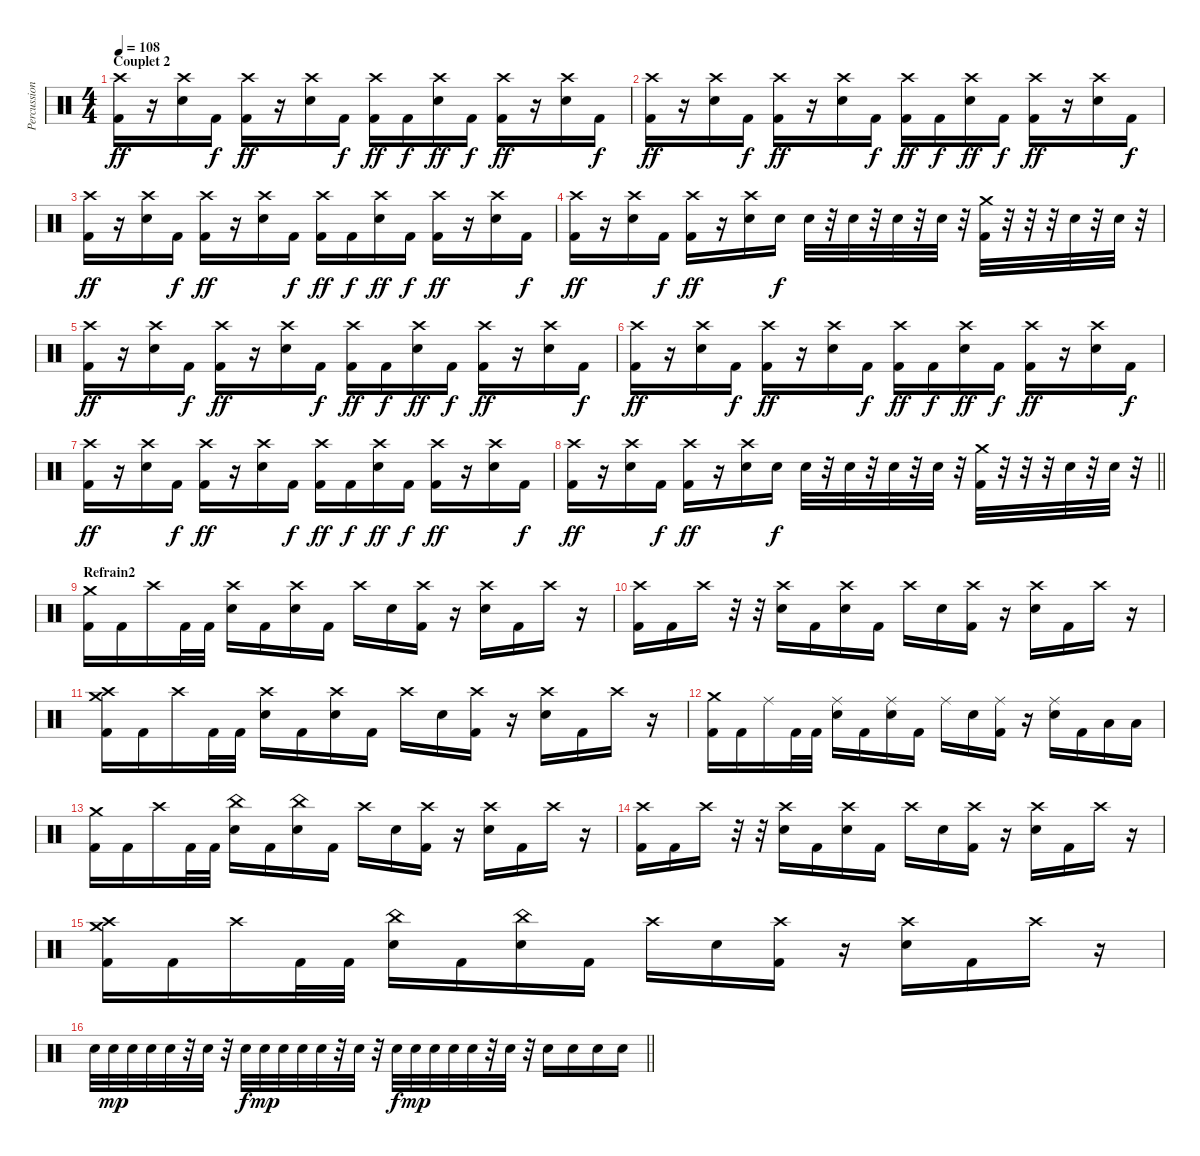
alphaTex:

\track ("Percussions" "Percussion") {instrument percussion}
\staff {score}
\articulation defaults
\ts (4 4)
\section ("" "Couplet 2")
\tempo 108
\clef neutral
\ks c
("Kick (hit) 2" "Crash high (hit)").16{dy ff} r.16 ("Electric Snare (hit)" "Crash high (hit)").16 "Kick (hit) 2".16{dy f} ("Kick (hit) 2" "Crash high (hit)").16{dy ff} r.16 ("Electric Snare (hit)" "Crash high (hit)").16 "Kick (hit) 2".16{dy f} ("Kick (hit) 2" "Crash high (hit)").16{dy ff} "Kick (hit) 2".16{dy f} ("Electric Snare (hit)" "Crash high (hit)").16{dy ff} "Kick (hit) 2".16{dy f} ("Kick (hit) 2" "Crash high (hit)").16{dy ff} r.16 ("Electric Snare (hit)" "Crash high (hit)").16 "Kick (hit) 2".16{dy f} |
("Kick (hit) 2" "Crash high (hit)").16{dy ff} r.16 ("Electric Snare (hit)" "Crash high (hit)").16 "Kick (hit) 2".16{dy f} ("Kick (hit) 2" "Crash high (hit)").16{dy ff} r.16 ("Electric Snare (hit)" "Crash high (hit)").16 "Kick (hit) 2".16{dy f} ("Kick (hit) 2" "Crash high (hit)").16{dy ff} "Kick (hit) 2".16{dy f} ("Electric Snare (hit)" "Crash high (hit)").16{dy ff} "Kick (hit) 2".16{dy f} ("Kick (hit) 2" "Crash high (hit)").16{dy ff} r.16 ("Electric Snare (hit)" "Crash high (hit)").16 "Kick (hit) 2".16{dy f} |
("Kick (hit) 2" "Crash high (hit)").16{dy ff} r.16 ("Electric Snare (hit)" "Crash high (hit)").16 "Kick (hit) 2".16{dy f} ("Kick (hit) 2" "Crash high (hit)").16{dy ff} r.16 ("Electric Snare (hit)" "Crash high (hit)").16 "Kick (hit) 2".16{dy f} ("Kick (hit) 2" "Crash high (hit)").16{dy ff} "Kick (hit) 2".16{dy f} ("Electric Snare (hit)" "Crash high (hit)").16{dy ff} "Kick (hit) 2".16{dy f} ("Kick (hit) 2" "Crash high (hit)").16{dy ff} r.16 ("Electric Snare (hit)" "Crash high (hit)").16 "Kick (hit) 2".16{dy f} |
("Kick (hit) 2" "Crash high (hit)").16{dy ff} r.16 ("Electric Snare (hit)" "Crash high (hit)").16 "Kick (hit) 2".16{dy f} ("Kick (hit) 2" "Crash high (hit)").16{dy ff} r.16 ("Electric Snare (hit)" "Crash high (hit)").16 "Electric Snare (hit)".16{dy f} "Electric Snare (hit)".32 r.32 "Electric Snare (hit)".32 r.32 "Electric Snare (hit)".32 r.32 "Electric Snare (hit)".32 r.32 ("Kick (hit) 2" "Crash medium (hit)").32 r.32 r.32 r.32 "Electric Snare (hit)".32 r.32 "Electric Snare (hit)".32 r.32 |
("Kick (hit) 2" "Crash high (hit)").16{dy ff} r.16 ("Electric Snare (hit)" "Crash high (hit)").16 "Kick (hit) 2".16{dy f} ("Kick (hit) 2" "Crash high (hit)").16{dy ff} r.16 ("Electric Snare (hit)" "Crash high (hit)").16 "Kick (hit) 2".16{dy f} ("Kick (hit) 2" "Crash high (hit)").16{dy ff} "Kick (hit) 2".16{dy f} ("Electric Snare (hit)" "Crash high (hit)").16{dy ff} "Kick (hit) 2".16{dy f} ("Kick (hit) 2" "Crash high (hit)").16{dy ff} r.16 ("Electric Snare (hit)" "Crash high (hit)").16 "Kick (hit) 2".16{dy f} |
("Kick (hit) 2" "Crash high (hit)").16{dy ff} r.16 ("Electric Snare (hit)" "Crash high (hit)").16 "Kick (hit) 2".16{dy f} ("Kick (hit) 2" "Crash high (hit)").16{dy ff} r.16 ("Electric Snare (hit)" "Crash high (hit)").16 "Kick (hit) 2".16{dy f} ("Kick (hit) 2" "Crash high (hit)").16{dy ff} "Kick (hit) 2".16{dy f} ("Electric Snare (hit)" "Crash high (hit)").16{dy ff} "Kick (hit) 2".16{dy f} ("Kick (hit) 2" "Crash high (hit)").16{dy ff} r.16 ("Electric Snare (hit)" "Crash high (hit)").16 "Kick (hit) 2".16{dy f} |
("Kick (hit) 2" "Crash high (hit)").16{dy ff} r.16 ("Electric Snare (hit)" "Crash high (hit)").16 "Kick (hit) 2".16{dy f} ("Kick (hit) 2" "Crash high (hit)").16{dy ff} r.16 ("Electric Snare (hit)" "Crash high (hit)").16 "Kick (hit) 2".16{dy f} ("Kick (hit) 2" "Crash high (hit)").16{dy ff} "Kick (hit) 2".16{dy f} ("Electric Snare (hit)" "Crash high (hit)").16{dy ff} "Kick (hit) 2".16{dy f} ("Kick (hit) 2" "Crash high (hit)").16{dy ff} r.16 ("Electric Snare (hit)" "Crash high (hit)").16 "Kick (hit) 2".16{dy f} |
\barLineRight lightlight
("Kick (hit) 2" "Crash high (hit)").16{dy ff} r.16 ("Electric Snare (hit)" "Crash high (hit)").16 "Kick (hit) 2".16{dy f} ("Kick (hit) 2" "Crash high (hit)").16{dy ff} r.16 ("Electric Snare (hit)" "Crash high (hit)").16 "Electric Snare (hit)".16{dy f} "Electric Snare (hit)".32 r.32 "Electric Snare (hit)".32 r.32 "Electric Snare (hit)".32 r.32 "Electric Snare (hit)".32 r.32 ("Kick (hit) 2" "Crash medium (hit)").32 r.32 r.32 r.32 "Electric Snare (hit)".32 r.32 "Electric Snare (hit)".32 r.32 |
\section ("" "Refrain2")
("Kick (hit) 2" "Crash medium (hit)").16 "Kick (hit) 2".16 "Crash high (hit)".16 "Kick (hit) 2".32 "Kick (hit) 2".32 ("Electric Snare (hit)" "Crash high (hit)").16 "Kick (hit) 2".16 ("Electric Snare (hit)" "Crash high (hit)").16 "Kick (hit) 2".16 "Crash high (hit)".16 "Electric Snare (hit)".16 ("Kick (hit) 2" "Crash high (hit)").16 r.16 ("Electric Snare (hit)" "Crash high (hit)").16 "Kick (hit) 2".16 "Crash high (hit)".16 r.16 |
("Kick (hit) 2" "Crash high (hit)").16 "Kick (hit) 2".16 "Crash high (hit)".16 r.32 r.32 ("Electric Snare (hit)" "Crash high (hit)").16 "Kick (hit) 2".16 ("Electric Snare (hit)" "Crash high (hit)").16 "Kick (hit) 2".16 "Crash high (hit)".16 "Electric Snare (hit)".16 ("Kick (hit) 2" "Crash high (hit)").16 r.16 ("Electric Snare (hit)" "Crash high (hit)").16 "Kick (hit) 2".16 "Crash high (hit)".16 r.16 |
("Kick (hit) 2" "Crash medium (hit)" "Crash high (hit)").16 "Kick (hit) 2".16 "Crash high (hit)".16 "Kick (hit) 2".32 "Kick (hit) 2".32 ("Electric Snare (hit)" "Crash high (hit)").16 "Kick (hit) 2".16 ("Electric Snare (hit)" "Crash high (hit)").16 "Kick (hit) 2".16 "Crash high (hit)".16 "Electric Snare (hit)".16 ("Kick (hit) 2" "Crash high (hit)").16 r.16 ("Electric Snare (hit)" "Crash high (hit)").16 "Kick (hit) 2".16 "Crash high (hit)".16 r.16 |
("Kick (hit) 2" "Crash medium (hit)").16 "Kick (hit) 2".16 "Ride (middle)".16 "Kick (hit) 2".32 "Kick (hit) 2".32 ("Electric Snare (hit)" "Ride (middle)").16 "Kick (hit) 2".16 ("Electric Snare (hit)" "Ride (middle)").16 "Kick (hit) 2".16 "Ride (middle)".16 "Electric Snare (hit)".16 ("Kick (hit) 2" "Ride (middle)").16 r.16 ("Electric Snare (hit)" "Ride (middle)").16 "Kick (hit) 2".16 "Low Tom (hit)".16 "Low Tom (hit)".16 |
("Kick (hit) 2" "Crash medium (hit)").16 "Kick (hit) 2".16 "Crash high (hit)".16 "Kick (hit) 2".32 "Kick (hit) 2".32 ("Electric Snare (hit)" "China (hit)").16 "Kick (hit) 2".16 ("Electric Snare (hit)" "China (hit)").16 "Kick (hit) 2".16 "Crash high (hit)".16 "Electric Snare (hit)".16 ("Kick (hit) 2" "Crash high (hit)").16 r.16 ("Electric Snare (hit)" "Crash high (hit)").16 "Kick (hit) 2".16 "Crash high (hit)".16 r.16 |
("Kick (hit) 2" "Crash high (hit)").16 "Kick (hit) 2".16 "Crash high (hit)".16 r.32 r.32 ("Electric Snare (hit)" "Crash high (hit)").16 "Kick (hit) 2".16 ("Electric Snare (hit)" "Crash high (hit)").16 "Kick (hit) 2".16 "Crash high (hit)".16 "Electric Snare (hit)".16 ("Kick (hit) 2" "Crash high (hit)").16 r.16 ("Electric Snare (hit)" "Crash high (hit)").16 "Kick (hit) 2".16 "Crash high (hit)".16 r.16 |
("Kick (hit) 2" "Crash medium (hit)" "Crash high (hit)").16 "Kick (hit) 2".16 "Crash high (hit)".16 "Kick (hit) 2".32 "Kick (hit) 2".32 ("Electric Snare (hit)" "China (hit)").16 "Kick (hit) 2".16 ("Electric Snare (hit)" "China (hit)").16 "Kick (hit) 2".16 "Crash high (hit)".16 "Electric Snare (hit)".16 ("Kick (hit) 2" "Crash high (hit)").16 r.16 ("Electric Snare (hit)" "Crash high (hit)").16 "Kick (hit) 2".16 "Crash high (hit)".16 r.16 |
\barLineRight lightlight "Electric Snare (hit)".32 "Electric Snare (hit)".32{dy mp} "Electric Snare (hit)".32 "Electric Snare (hit)".32 "Electric Snare (hit)".32
r.32 "Electric Snare (hit)".32 r.32 "Electric Snare (hit)".32{dy f} "Electric Snare (hit)".32{dy mp} "Electric Snare (hit)".32 "Electric Snare (hit)".32 "Electric Snare (hit)".32 r.32 "Electric Snare (hit)".32 r.32 "Electric Snare (hit)".32{dy f} "Electric Snare (hit)".32{dy mp} "Electric Snare (hit)".32 "Electric Snare (hit)".32 "Electric Snare (hit)".32 r.32 "Electric Snare (hit)".32 r.32 "Electric Snare (hit)".16 "Electric Snare (hit)".16 "Electric Snare (hit)".16 "Electric Snare (hit)".16
